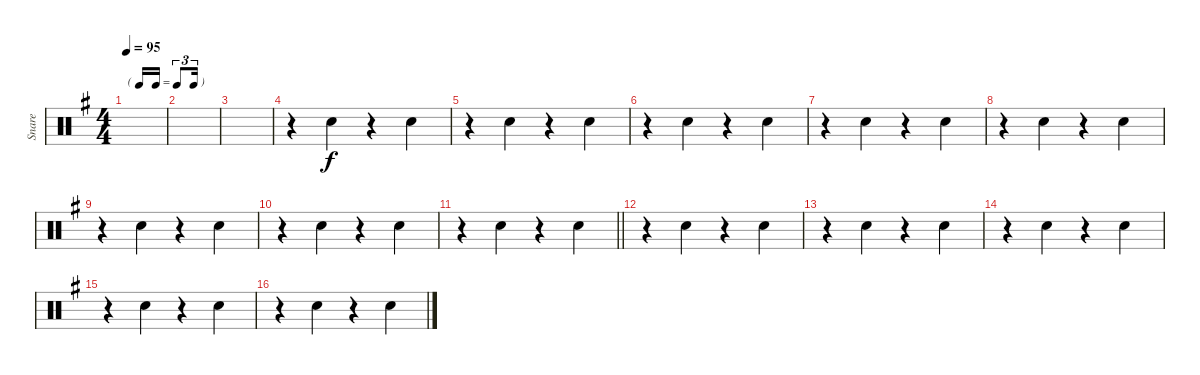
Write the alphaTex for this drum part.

\track ("Snare" "Snare") {instrument percussion}
\staff {score}
\articulation defaults
\ts (4 4)
\tf triplet16th
\tempo 95
\clef neutral
\ks eminor
|
|
|
r.4 "Snare (hit) 2".4 r.4 "Snare (hit) 2".4 |
r.4 "Snare (hit) 2".4 r.4 "Snare (hit) 2".4 |
r.4 "Snare (hit) 2".4 r.4 "Snare (hit) 2".4 |
r.4 "Snare (hit) 2".4 r.4 "Snare (hit) 2".4 |
r.4 "Snare (hit) 2".4 r.4 "Snare (hit) 2".4 |
r.4 "Snare (hit) 2".4 r.4 "Snare (hit) 2".4 |
r.4 "Snare (hit) 2".4 r.4 "Snare (hit) 2".4 |
\barLineRight lightlight
r.4 "Snare (hit) 2".4 r.4 "Snare (hit) 2".4 |
r.4 "Snare (hit) 2".4 r.4 "Snare (hit) 2".4 |
r.4 "Snare (hit) 2".4 r.4 "Snare (hit) 2".4 |
r.4 "Snare (hit) 2".4 r.4 "Snare (hit) 2".4 |
r.4 "Snare (hit) 2".4 r.4 "Snare (hit) 2".4 |
r.4 "Snare (hit) 2".4 r.4 "Snare (hit) 2".4
